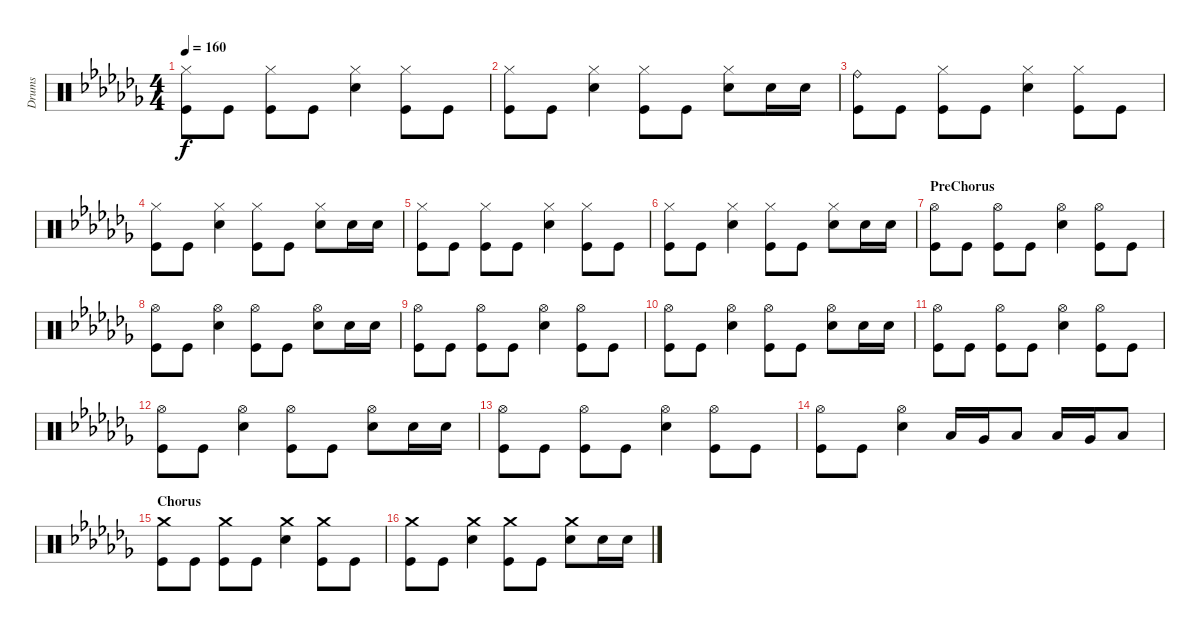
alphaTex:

\track ("Drums" "Drums") {instrument percussion}
\staff {score}
\articulation defaults
\ts (4 4)
\tempo 160
\clef neutral
\ks cb
("Hi-Hat (closed)" "Kick (hit)").8{dy f} "Kick (hit)".8 ("Hi-Hat (closed)" "Kick (hit)").8 "Kick (hit)".8 ("Hi-Hat (closed)" "Electric Snare (hit)").4 ("Hi-Hat (closed)" "Kick (hit)").8 "Kick (hit)".8 |
("Hi-Hat (closed)" "Kick (hit)").8 "Kick (hit)".8 ("Hi-Hat (closed)" "Electric Snare (hit)").4 ("Hi-Hat (closed)" "Kick (hit)").8 "Kick (hit)".8 ("Hi-Hat (closed)" "Electric Snare (hit)").8 "Electric Snare (hit)".16 "Electric Snare (hit)".16 |
("Ride (bell)" "Kick (hit)").8 "Kick (hit)".8 ("Hi-Hat (closed)" "Kick (hit)").8 "Kick (hit)".8 ("Hi-Hat (closed)" "Electric Snare (hit)").4 ("Hi-Hat (closed)" "Kick (hit)").8 "Kick (hit)".8 |
("Hi-Hat (closed)" "Kick (hit)").8 "Kick (hit)".8 ("Hi-Hat (closed)" "Electric Snare (hit)").4 ("Hi-Hat (closed)" "Kick (hit)").8 "Kick (hit)".8 ("Hi-Hat (closed)" "Electric Snare (hit)").8 "Electric Snare (hit)".16 "Electric Snare (hit)".16 |
("Hi-Hat (closed)" "Kick (hit)").8 "Kick (hit)".8 ("Hi-Hat (closed)" "Kick (hit)").8 "Kick (hit)".8 ("Hi-Hat (closed)" "Electric Snare (hit)").4 ("Hi-Hat (closed)" "Kick (hit)").8 "Kick (hit)".8 |
("Hi-Hat (closed)" "Kick (hit)").8 "Kick (hit)".8 ("Hi-Hat (closed)" "Electric Snare (hit)").4 ("Hi-Hat (closed)" "Kick (hit)").8 "Kick (hit)".8 ("Hi-Hat (closed)" "Electric Snare (hit)").8 "Electric Snare (hit)".16 "Electric Snare (hit)".16 |
\section ("" "PreChorus")
("Hi-Hat (open)" "Kick (hit)").8 "Kick (hit)".8 ("Hi-Hat (open)" "Kick (hit)").8 "Kick (hit)".8 ("Hi-Hat (open)" "Electric Snare (hit)").4 ("Hi-Hat (open)" "Kick (hit)").8 "Kick (hit)".8 |
("Hi-Hat (open)" "Kick (hit)").8 "Kick (hit)".8 ("Hi-Hat (open)" "Electric Snare (hit)").4 ("Hi-Hat (open)" "Kick (hit)").8 "Kick (hit)".8 ("Hi-Hat (open)" "Electric Snare (hit)").8 "Electric Snare (hit)".16 "Electric Snare (hit)".16 |
("Hi-Hat (open)" "Kick (hit)").8 "Kick (hit)".8 ("Hi-Hat (open)" "Kick (hit)").8 "Kick (hit)".8 ("Hi-Hat (open)" "Electric Snare (hit)").4 ("Hi-Hat (open)" "Kick (hit)").8 "Kick (hit)".8 |
("Hi-Hat (open)" "Kick (hit)").8 "Kick (hit)".8 ("Hi-Hat (open)" "Electric Snare (hit)").4 ("Hi-Hat (open)" "Kick (hit)").8 "Kick (hit)".8 ("Hi-Hat (open)" "Electric Snare (hit)").8 "Electric Snare (hit)".16 "Electric Snare (hit)".16 |
("Hi-Hat (open)" "Kick (hit)").8 "Kick (hit)".8 ("Hi-Hat (open)" "Kick (hit)").8 "Kick (hit)".8 ("Hi-Hat (open)" "Electric Snare (hit)").4 ("Hi-Hat (open)" "Kick (hit)").8 "Kick (hit)".8 |
("Hi-Hat (open)" "Kick (hit)").8 "Kick (hit)".8 ("Hi-Hat (open)" "Electric Snare (hit)").4 ("Hi-Hat (open)" "Kick (hit)").8 "Kick (hit)".8 ("Hi-Hat (open)" "Electric Snare (hit)").8 "Electric Snare (hit)".16 "Electric Snare (hit)".16 |
("Hi-Hat (open)" "Kick (hit)").8 "Kick (hit)".8 ("Hi-Hat (open)" "Kick (hit)").8 "Kick (hit)".8 ("Hi-Hat (open)" "Electric Snare (hit)").4 ("Hi-Hat (open)" "Kick (hit)").8 "Kick (hit)".8 |
("Hi-Hat (open)" "Kick (hit)").8 "Kick (hit)".8 ("Hi-Hat (open)" "Electric Snare (hit)").4 "Low Tom (hit)".16 "Very Low Tom (hit)".16 "Low Floor Tom (hit)".8 "Low Tom (hit)".16 "Very Low Tom (hit)".16 "Low Floor Tom (hit)".8 |
\section ("" "Chorus")
("Crash medium (hit)" "Kick (hit)").8 "Kick (hit)".8 ("Crash medium (hit)" "Kick (hit)").8 "Kick (hit)".8 ("Crash medium (hit)" "Electric Snare (hit)").4 ("Crash medium (hit)" "Kick (hit)").8 "Kick (hit)".8 |
("Crash medium (hit)" "Kick (hit)").8 "Kick (hit)".8 ("Crash medium (hit)" "Electric Snare (hit)").4 ("Crash medium (hit)" "Kick (hit)").8 "Kick (hit)".8 ("Crash medium (hit)" "Electric Snare (hit)").8 "Electric Snare (hit)".16 "Electric Snare (hit)".16
